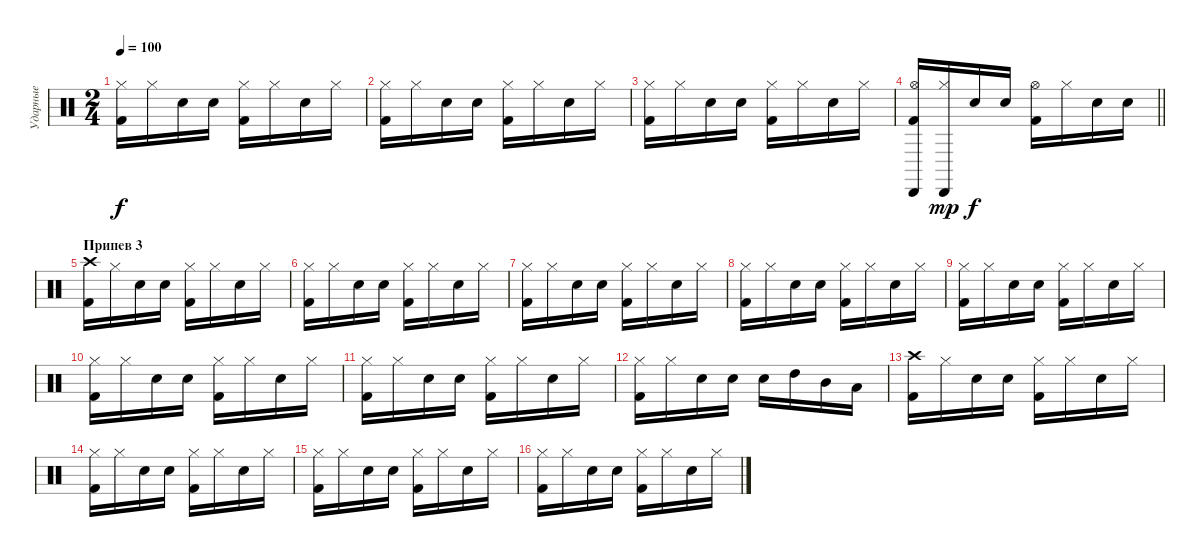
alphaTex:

\track ("Ударные" "Ударные") {instrument percussion}
\staff {score}
\articulation defaults
\ts (2 4)
\tempo 100
\clef neutral
\ks c
("Hi-Hat (closed)" "Kick (hit) 2").16{dy f} "Hi-Hat (closed)".16 "Electric Snare (hit)".16 "Electric Snare (hit)".16 ("Kick (hit) 2" "Hi-Hat (closed)").16 "Hi-Hat (closed)".16 "Electric Snare (hit)".16 "Hi-Hat (closed)".16 |
("Hi-Hat (closed)" "Kick (hit) 2").16 "Hi-Hat (closed)".16 "Electric Snare (hit)".16 "Electric Snare (hit)".16 ("Kick (hit) 2" "Hi-Hat (closed)").16 "Hi-Hat (closed)".16 "Electric Snare (hit)".16 "Hi-Hat (closed)".16 |
("Hi-Hat (closed)" "Kick (hit) 2").16 "Hi-Hat (closed)".16 "Electric Snare (hit)".16 "Electric Snare (hit)".16 ("Kick (hit) 2" "Hi-Hat (closed)").16 "Hi-Hat (closed)".16 "Electric Snare (hit)".16 "Hi-Hat (closed)".16 |
\barLineRight lightlight
("Kick (hit) 2" "Cabasa (hit)" "Hi-Hat (open)").16 ("Cabasa (hit)" "Hi-Hat (closed)").16{dy mp} "Electric Snare (hit)".16{dy f} "Electric Snare (hit)".16 ("Kick (hit) 2" "Hi-Hat (open)").16 "Hi-Hat (closed)".16 "Electric Snare (hit)".16 "Electric Snare (hit)".16 |
\section ("" "Припев 3")
("Crash high (hit)" "Kick (hit) 2").16 "Hi-Hat (closed)".16 "Electric Snare (hit)".16 "Electric Snare (hit)".16 ("Kick (hit) 2" "Hi-Hat (closed)").16 "Hi-Hat (closed)".16 "Electric Snare (hit)".16 "Hi-Hat (closed)".16 |
("Hi-Hat (closed)" "Kick (hit) 2").16 "Hi-Hat (closed)".16 "Electric Snare (hit)".16 "Electric Snare (hit)".16 ("Kick (hit) 2" "Hi-Hat (closed)").16 "Hi-Hat (closed)".16 "Electric Snare (hit)".16 "Hi-Hat (closed)".16 |
("Hi-Hat (closed)" "Kick (hit) 2").16 "Hi-Hat (closed)".16 "Electric Snare (hit)".16 "Electric Snare (hit)".16 ("Kick (hit) 2" "Hi-Hat (closed)").16 "Hi-Hat (closed)".16 "Electric Snare (hit)".16 "Hi-Hat (closed)".16 |
("Hi-Hat (closed)" "Kick (hit) 2").16 "Hi-Hat (closed)".16 "Electric Snare (hit)".16 "Electric Snare (hit)".16 ("Kick (hit) 2" "Hi-Hat (closed)").16 "Hi-Hat (closed)".16 "Electric Snare (hit)".16 "Hi-Hat (closed)".16 |
("Hi-Hat (closed)" "Kick (hit) 2").16 "Hi-Hat (closed)".16 "Electric Snare (hit)".16 "Electric Snare (hit)".16 ("Kick (hit) 2" "Hi-Hat (closed)").16 "Hi-Hat (closed)".16 "Electric Snare (hit)".16 "Hi-Hat (closed)".16 |
("Hi-Hat (closed)" "Kick (hit) 2").16 "Hi-Hat (closed)".16 "Electric Snare (hit)".16 "Electric Snare (hit)".16 ("Kick (hit) 2" "Hi-Hat (closed)").16 "Hi-Hat (closed)".16 "Electric Snare (hit)".16 "Hi-Hat (closed)".16 |
("Hi-Hat (closed)" "Kick (hit) 2").16 "Hi-Hat (closed)".16 "Electric Snare (hit)".16 "Electric Snare (hit)".16 ("Kick (hit) 2" "Hi-Hat (closed)").16 "Hi-Hat (closed)".16 "Electric Snare (hit)".16 "Hi-Hat (closed)".16 |
("Hi-Hat (closed)" "Kick (hit) 2").16 "Hi-Hat (closed)".16 "Electric Snare (hit)".16 "Electric Snare (hit)".16 "Electric Snare (hit)".16 "High Tom (hit)".16 "Mid Tom (hit)".16 "Low Tom (hit)".16 |
("Crash high (hit)" "Kick (hit) 2").16 "Hi-Hat (closed)".16 "Electric Snare (hit)".16 "Electric Snare (hit)".16 ("Kick (hit) 2" "Hi-Hat (closed)").16 "Hi-Hat (closed)".16 "Electric Snare (hit)".16 "Hi-Hat (closed)".16 |
("Hi-Hat (closed)" "Kick (hit) 2").16 "Hi-Hat (closed)".16 "Electric Snare (hit)".16 "Electric Snare (hit)".16 ("Kick (hit) 2" "Hi-Hat (closed)").16 "Hi-Hat (closed)".16 "Electric Snare (hit)".16 "Hi-Hat (closed)".16 |
("Hi-Hat (closed)" "Kick (hit) 2").16 "Hi-Hat (closed)".16 "Electric Snare (hit)".16 "Electric Snare (hit)".16 ("Kick (hit) 2" "Hi-Hat (closed)").16 "Hi-Hat (closed)".16 "Electric Snare (hit)".16 "Hi-Hat (closed)".16 |
("Hi-Hat (closed)" "Kick (hit) 2").16 "Hi-Hat (closed)".16 "Electric Snare (hit)".16 "Electric Snare (hit)".16 ("Kick (hit) 2" "Hi-Hat (closed)").16 "Hi-Hat (closed)".16 "Electric Snare (hit)".16 "Hi-Hat (closed)".16
